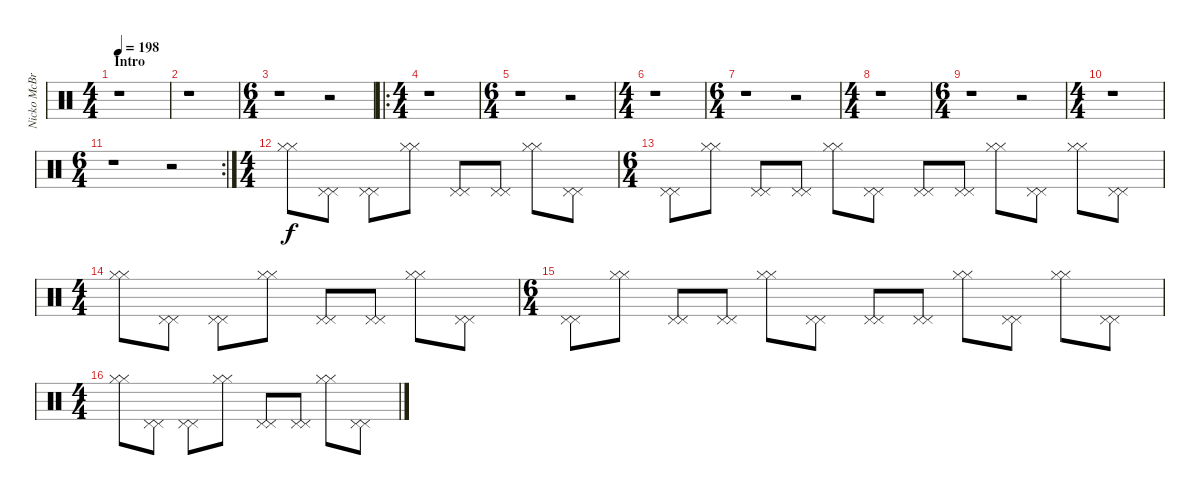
\track ("Nicko McBrain" "Nicko McBr") {instrument percussion}
\staff {score}
\articulation defaults
\ts (4 4)
\section ("" "Intro")
\tempo 198
\clef neutral
\ks c
r.1{dy f} |
r.1 |
\ts (6 4)
r.1 r.2 |
\ro
\ts (4 4)
r.1 |
\ts (6 4)
r.1 r.2 |
\ts (4 4)
r.1 |
\ts (6 4)
r.1 r.2 |
\ts (4 4)
r.1 |
\ts (6 4)
r.1 r.2 |
\ts (4 4)
r.1 |
\rc 2
\ts (6 4)
r.1 r.2 |
\ts (4 4)
("Hi-Hat (closed)" "Hi-Hat (closed)").8 ("Pedal Hi-Hat (hit)" "Pedal Hi-Hat (hit)").8 ("Pedal Hi-Hat (hit)" "Pedal Hi-Hat (hit)").8 ("Hi-Hat (closed)" "Hi-Hat (closed)").8 ("Pedal Hi-Hat (hit)" "Pedal Hi-Hat (hit)").8 ("Pedal Hi-Hat (hit)" "Pedal Hi-Hat (hit)").8 ("Hi-Hat (closed)" "Hi-Hat (closed)").8 ("Pedal Hi-Hat (hit)" "Pedal Hi-Hat (hit)").8 |
\ts (6 4)
("Pedal Hi-Hat (hit)" "Pedal Hi-Hat (hit)").8 ("Hi-Hat (closed)" "Hi-Hat (closed)").8 ("Pedal Hi-Hat (hit)" "Pedal Hi-Hat (hit)").8 ("Pedal Hi-Hat (hit)" "Pedal Hi-Hat (hit)").8 ("Hi-Hat (closed)" "Hi-Hat (closed)").8 ("Pedal Hi-Hat (hit)" "Pedal Hi-Hat (hit)").8 ("Pedal Hi-Hat (hit)" "Pedal Hi-Hat (hit)").8 ("Pedal Hi-Hat (hit)" "Pedal Hi-Hat (hit)").8 ("Hi-Hat (closed)" "Hi-Hat (closed)").8 ("Pedal Hi-Hat (hit)" "Pedal Hi-Hat (hit)").8 ("Hi-Hat (closed)" "Hi-Hat (closed)").8 ("Pedal Hi-Hat (hit)" "Pedal Hi-Hat (hit)").8 |
\ts (4 4)
("Hi-Hat (closed)" "Hi-Hat (closed)").8 ("Pedal Hi-Hat (hit)" "Pedal Hi-Hat (hit)").8 ("Pedal Hi-Hat (hit)" "Pedal Hi-Hat (hit)").8 ("Hi-Hat (closed)" "Hi-Hat (closed)").8 ("Pedal Hi-Hat (hit)" "Pedal Hi-Hat (hit)").8 ("Pedal Hi-Hat (hit)" "Pedal Hi-Hat (hit)").8 ("Hi-Hat (closed)" "Hi-Hat (closed)").8 ("Pedal Hi-Hat (hit)" "Pedal Hi-Hat (hit)").8 |
\ts (6 4)
("Pedal Hi-Hat (hit)" "Pedal Hi-Hat (hit)").8 ("Hi-Hat (closed)" "Hi-Hat (closed)").8 ("Pedal Hi-Hat (hit)" "Pedal Hi-Hat (hit)").8 ("Pedal Hi-Hat (hit)" "Pedal Hi-Hat (hit)").8 ("Hi-Hat (closed)" "Hi-Hat (closed)").8 ("Pedal Hi-Hat (hit)" "Pedal Hi-Hat (hit)").8 ("Pedal Hi-Hat (hit)" "Pedal Hi-Hat (hit)").8 ("Pedal Hi-Hat (hit)" "Pedal Hi-Hat (hit)").8 ("Hi-Hat (closed)" "Hi-Hat (closed)").8 ("Pedal Hi-Hat (hit)" "Pedal Hi-Hat (hit)").8 ("Hi-Hat (closed)" "Hi-Hat (closed)").8 ("Pedal Hi-Hat (hit)" "Pedal Hi-Hat (hit)").8 |
\ts (4 4)
("Hi-Hat (closed)" "Hi-Hat (closed)").8 ("Pedal Hi-Hat (hit)" "Pedal Hi-Hat (hit)").8 ("Pedal Hi-Hat (hit)" "Pedal Hi-Hat (hit)").8 ("Hi-Hat (closed)" "Hi-Hat (closed)").8 ("Pedal Hi-Hat (hit)" "Pedal Hi-Hat (hit)").8 ("Pedal Hi-Hat (hit)" "Pedal Hi-Hat (hit)").8 ("Hi-Hat (closed)" "Hi-Hat (closed)").8 ("Pedal Hi-Hat (hit)" "Pedal Hi-Hat (hit)").8
